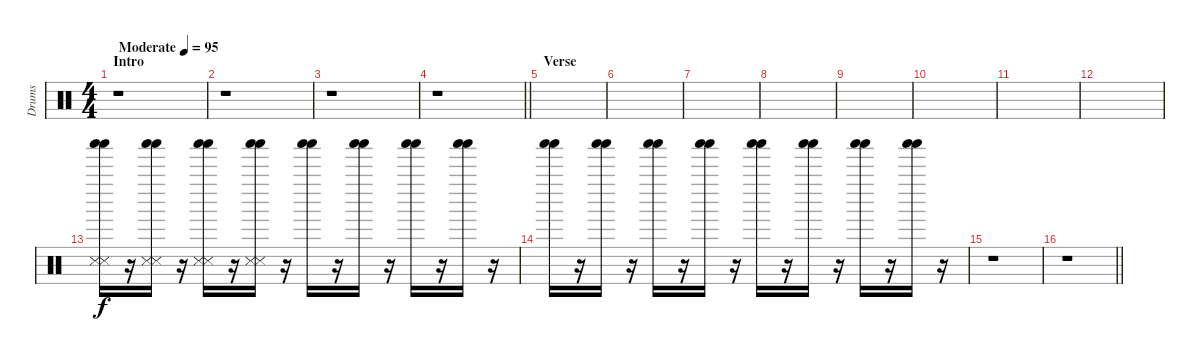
\track ("Drums" "Drums") {instrument percussion}
\staff {score}
\articulation defaults
\ts (4 4)
\section ("" "Intro")
\tempo (95 "Moderate")
\clef neutral
\ks c
r.1{dy f} |
r.1 |
r.1 |
\barLineRight lightlight
r.1 |
\section ("" "Verse")
|
|
|
|
|
|
|
|
("Shaker (hit)" "Shaker (hit)" "Snare (side stick) 3" "Snare (side stick) 3").16 r.16 ("Shaker (hit)" "Shaker (hit)" "Snare (side stick) 3" "Snare (side stick) 3").16 r.16 ("Shaker (hit)" "Shaker (hit)" "Snare (side stick) 3" "Snare (side stick) 3").16 r.16 ("Shaker (hit)" "Shaker (hit)" "Snare (side stick) 3" "Snare (side stick) 3").16 r.16 ("Shaker (hit)" "Shaker (hit)").16 r.16 ("Shaker (hit)" "Shaker (hit)").16 r.16 ("Shaker (hit)" "Shaker (hit)").16 r.16 ("Shaker (hit)" "Shaker (hit)").16 r.16 |
("Shaker (hit)" "Shaker (hit)").16 r.16 ("Shaker (hit)" "Shaker (hit)").16 r.16 ("Shaker (hit)" "Shaker (hit)").16 r.16 ("Shaker (hit)" "Shaker (hit)").16 r.16 ("Shaker (hit)" "Shaker (hit)").16 r.16 ("Shaker (hit)" "Shaker (hit)").16 r.16 ("Shaker (hit)" "Shaker (hit)").16 r.16 ("Shaker (hit)" "Shaker (hit)").16 r.16 |
r.1 |
\barLineRight lightlight
r.1
